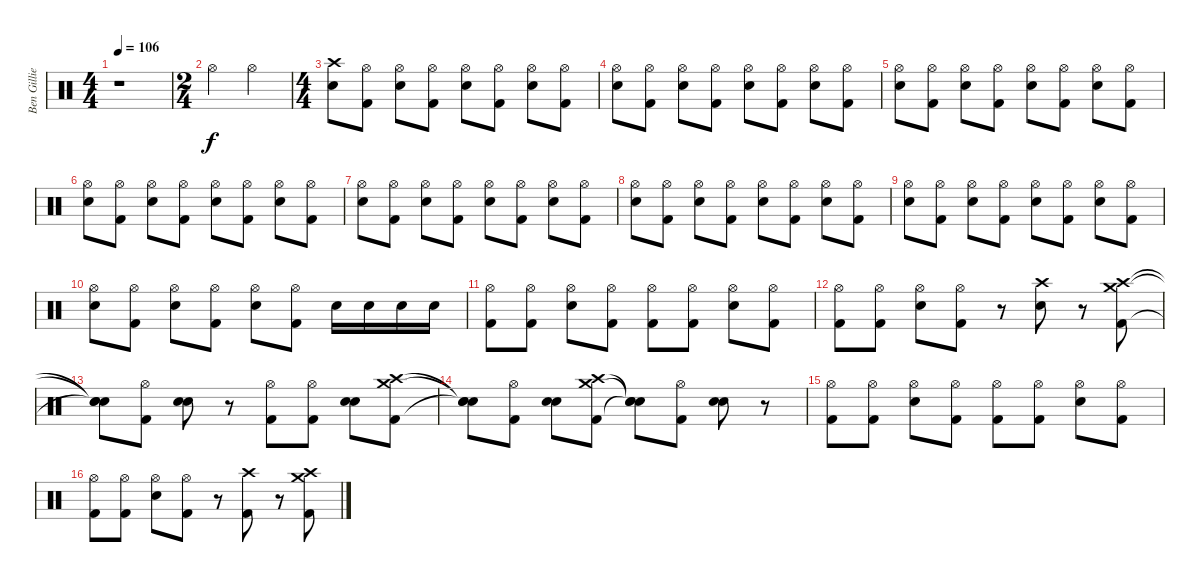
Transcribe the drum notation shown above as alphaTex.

\track ("Ben Gillies" "Ben Gillie") {instrument percussion}
\staff {score}
\articulation defaults
\ts (4 4)
\tempo 106
\clef neutral
\ks c
r.1{dy f} |
\ts (2 4)
"Hi-Hat (open)".4 "Hi-Hat (open)".4 |
\ts (4 4)
("Crash high (hit)" "Electric Snare (hit)").8 ("Hi-Hat (open)" "Kick (hit) 2").8 ("Hi-Hat (open)" "Electric Snare (hit)").8 ("Hi-Hat (open)" "Kick (hit) 2").8 ("Hi-Hat (open)" "Electric Snare (hit)").8 ("Hi-Hat (open)" "Kick (hit) 2").8 ("Hi-Hat (open)" "Electric Snare (hit)").8 ("Hi-Hat (open)" "Kick (hit) 2").8 |
("Hi-Hat (open)" "Electric Snare (hit)").8 ("Hi-Hat (open)" "Kick (hit) 2").8 ("Hi-Hat (open)" "Electric Snare (hit)").8 ("Hi-Hat (open)" "Kick (hit) 2").8 ("Hi-Hat (open)" "Electric Snare (hit)").8 ("Hi-Hat (open)" "Kick (hit) 2").8 ("Hi-Hat (open)" "Electric Snare (hit)").8 ("Hi-Hat (open)" "Kick (hit) 2").8 |
("Hi-Hat (open)" "Electric Snare (hit)").8 ("Hi-Hat (open)" "Kick (hit) 2").8 ("Hi-Hat (open)" "Electric Snare (hit)").8 ("Hi-Hat (open)" "Kick (hit) 2").8 ("Hi-Hat (open)" "Electric Snare (hit)").8 ("Hi-Hat (open)" "Kick (hit) 2").8 ("Hi-Hat (open)" "Electric Snare (hit)").8 ("Hi-Hat (open)" "Kick (hit) 2").8 |
("Hi-Hat (open)" "Electric Snare (hit)").8 ("Hi-Hat (open)" "Kick (hit) 2").8 ("Hi-Hat (open)" "Electric Snare (hit)").8 ("Hi-Hat (open)" "Kick (hit) 2").8 ("Hi-Hat (open)" "Electric Snare (hit)").8 ("Hi-Hat (open)" "Kick (hit) 2").8 ("Hi-Hat (open)" "Electric Snare (hit)").8 ("Hi-Hat (open)" "Kick (hit) 2").8 |
("Hi-Hat (open)" "Electric Snare (hit)").8 ("Hi-Hat (open)" "Kick (hit) 2").8 ("Hi-Hat (open)" "Electric Snare (hit)").8 ("Hi-Hat (open)" "Kick (hit) 2").8 ("Hi-Hat (open)" "Electric Snare (hit)").8 ("Hi-Hat (open)" "Kick (hit) 2").8 ("Hi-Hat (open)" "Electric Snare (hit)").8 ("Hi-Hat (open)" "Kick (hit) 2").8 |
("Hi-Hat (open)" "Electric Snare (hit)").8 ("Hi-Hat (open)" "Kick (hit) 2").8 ("Hi-Hat (open)" "Electric Snare (hit)").8 ("Hi-Hat (open)" "Kick (hit) 2").8 ("Hi-Hat (open)" "Electric Snare (hit)").8 ("Hi-Hat (open)" "Kick (hit) 2").8 ("Hi-Hat (open)" "Electric Snare (hit)").8 ("Hi-Hat (open)" "Kick (hit) 2").8 |
("Hi-Hat (open)" "Electric Snare (hit)").8 ("Hi-Hat (open)" "Kick (hit) 2").8 ("Hi-Hat (open)" "Electric Snare (hit)").8 ("Hi-Hat (open)" "Kick (hit) 2").8 ("Hi-Hat (open)" "Electric Snare (hit)").8 ("Hi-Hat (open)" "Kick (hit) 2").8 ("Hi-Hat (open)" "Electric Snare (hit)").8 ("Hi-Hat (open)" "Kick (hit) 2").8 |
("Hi-Hat (open)" "Electric Snare (hit)").8 ("Hi-Hat (open)" "Kick (hit) 2").8 ("Hi-Hat (open)" "Electric Snare (hit)").8 ("Hi-Hat (open)" "Kick (hit) 2").8 ("Hi-Hat (open)" "Electric Snare (hit)").8 ("Hi-Hat (open)" "Kick (hit) 2").8 "Electric Snare (hit)".16 "Electric Snare (hit)".16 "Electric Snare (hit)".16 "Electric Snare (hit)".16 |
("Hi-Hat (open)" "Kick (hit) 2").8 ("Hi-Hat (open)" "Kick (hit) 2").8 ("Hi-Hat (open)" "Electric Snare (hit)").8 ("Hi-Hat (open)" "Kick (hit) 2").8 ("Hi-Hat (open)" "Kick (hit) 2").8 ("Hi-Hat (open)" "Kick (hit) 2").8 ("Hi-Hat (open)" "Electric Snare (hit)").8 ("Hi-Hat (open)" "Kick (hit) 2").8 |
("Hi-Hat (open)" "Kick (hit) 2").8 ("Hi-Hat (open)" "Kick (hit) 2").8 ("Hi-Hat (open)" "Electric Snare (hit)").8 ("Hi-Hat (open)" "Kick (hit) 2").8 r.8 ("Crash high (hit)" "Electric Snare (hit)").8 r.8 ("Crash high (hit)" "Crash medium (hit)" "Kick (hit) 2").8 |
("Snare (hit)"{t} "Snare (hit)"{t} "Snare (hit)"{t}).8 ("Hi-Hat (open)" "Kick (hit) 2").8 ("Electric Snare (hit)" "Electric Snare (hit)").8 r.8 ("Hi-Hat (open)" "Kick (hit) 2").8 ("Hi-Hat (open)" "Kick (hit) 2").8 ("Electric Snare (hit)" "Electric Snare (hit)").8 ("Crash high (hit)" "Crash medium (hit)" "Kick (hit) 2").8 |
("Snare (hit)"{t} "Snare (hit)"{t} "Snare (hit)"{t}).8 ("Hi-Hat (open)" "Kick (hit) 2").8 ("Electric Snare (hit)" "Electric Snare (hit)").8 ("Crash high (hit)" "Crash medium (hit)" "Kick (hit) 2").8 ("Snare (hit)"{t} "Snare (hit)"{t} "Snare (hit)"{t}).8 ("Hi-Hat (open)" "Kick (hit) 2").8 ("Electric Snare (hit)" "Electric Snare (hit)").8 r.8 |
("Hi-Hat (open)" "Kick (hit) 2").8 ("Hi-Hat (open)" "Kick (hit) 2").8 ("Hi-Hat (open)" "Electric Snare (hit)").8 ("Hi-Hat (open)" "Kick (hit) 2").8 ("Hi-Hat (open)" "Kick (hit) 2").8 ("Hi-Hat (open)" "Kick (hit) 2").8 ("Hi-Hat (open)" "Electric Snare (hit)").8 ("Hi-Hat (open)" "Kick (hit) 2").8 |
("Hi-Hat (open)" "Kick (hit) 2").8 ("Hi-Hat (open)" "Kick (hit) 2").8 ("Hi-Hat (open)" "Electric Snare (hit)").8 ("Hi-Hat (open)" "Kick (hit) 2").8 r.8 ("Crash high (hit)" "Kick (hit) 2").8 r.8 ("Crash high (hit)" "Crash medium (hit)" "Kick (hit) 2").8
